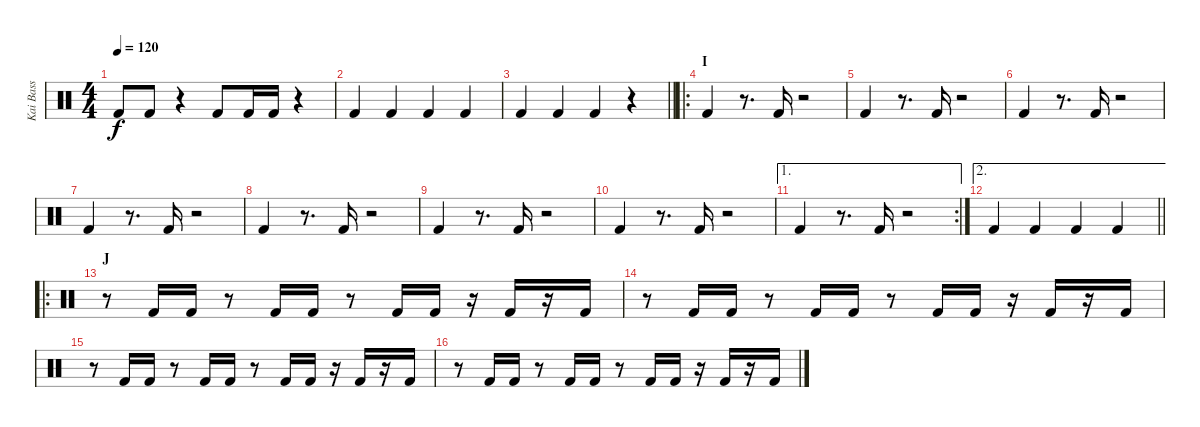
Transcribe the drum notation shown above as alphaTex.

\track ("Kai Bass" "Kai Bass") {instrument percussion}
\staff {score}
\articulation defaults
\ts (4 4)
\tempo 120
\clef neutral
\ks c "Kick (hit) 2".8{dy f} "Kick (hit) 2".8
r.4 "Kick (hit) 2".8 "Kick (hit) 2".16 "Kick (hit) 2".16 r.4 |
"Kick (hit) 2".4 "Kick (hit) 2".4 "Kick (hit) 2".4 "Kick (hit) 2".4 |
\barLineRight lightlight "Kick (hit) 2".4 "Kick (hit) 2".4 "Kick (hit) 2".4
r.4 |
\ro
\section ("" "I")
"Kick (hit) 2".4 r.8{d} "Kick (hit) 2".16 r.2 |
"Kick (hit) 2".4 r.8{d} "Kick (hit) 2".16 r.2 |
"Kick (hit) 2".4 r.8{d} "Kick (hit) 2".16 r.2 |
"Kick (hit) 2".4 r.8{d} "Kick (hit) 2".16 r.2 |
"Kick (hit) 2".4 r.8{d} "Kick (hit) 2".16 r.2 |
"Kick (hit) 2".4 r.8{d} "Kick (hit) 2".16 r.2 |
"Kick (hit) 2".4 r.8{d} "Kick (hit) 2".16 r.2 |
\ae 1
\rc 2 "Kick (hit) 2".4
r.8{d} "Kick (hit) 2".16 r.2 |
\ae 2
\barLineRight lightlight "Kick (hit) 2".4 "Kick (hit) 2".4 "Kick (hit) 2".4 "Kick (hit) 2".4
|
\ro
\section ("" "J")
r.8 "Kick (hit) 2".16 "Kick (hit) 2".16 r.8 "Kick (hit) 2".16 "Kick (hit) 2".16 r.8 "Kick (hit) 2".16 "Kick (hit) 2".16 r.16 "Kick (hit) 2".16 r.16 "Kick (hit) 2".16 |
r.8 "Kick (hit) 2".16 "Kick (hit) 2".16 r.8 "Kick (hit) 2".16 "Kick (hit) 2".16 r.8 "Kick (hit) 2".16 "Kick (hit) 2".16 r.16 "Kick (hit) 2".16 r.16 "Kick (hit) 2".16 |
r.8 "Kick (hit) 2".16 "Kick (hit) 2".16 r.8 "Kick (hit) 2".16 "Kick (hit) 2".16 r.8 "Kick (hit) 2".16 "Kick (hit) 2".16 r.16 "Kick (hit) 2".16 r.16 "Kick (hit) 2".16 |
r.8 "Kick (hit) 2".16 "Kick (hit) 2".16 r.8 "Kick (hit) 2".16 "Kick (hit) 2".16 r.8 "Kick (hit) 2".16 "Kick (hit) 2".16 r.16 "Kick (hit) 2".16 r.16 "Kick (hit) 2".16
